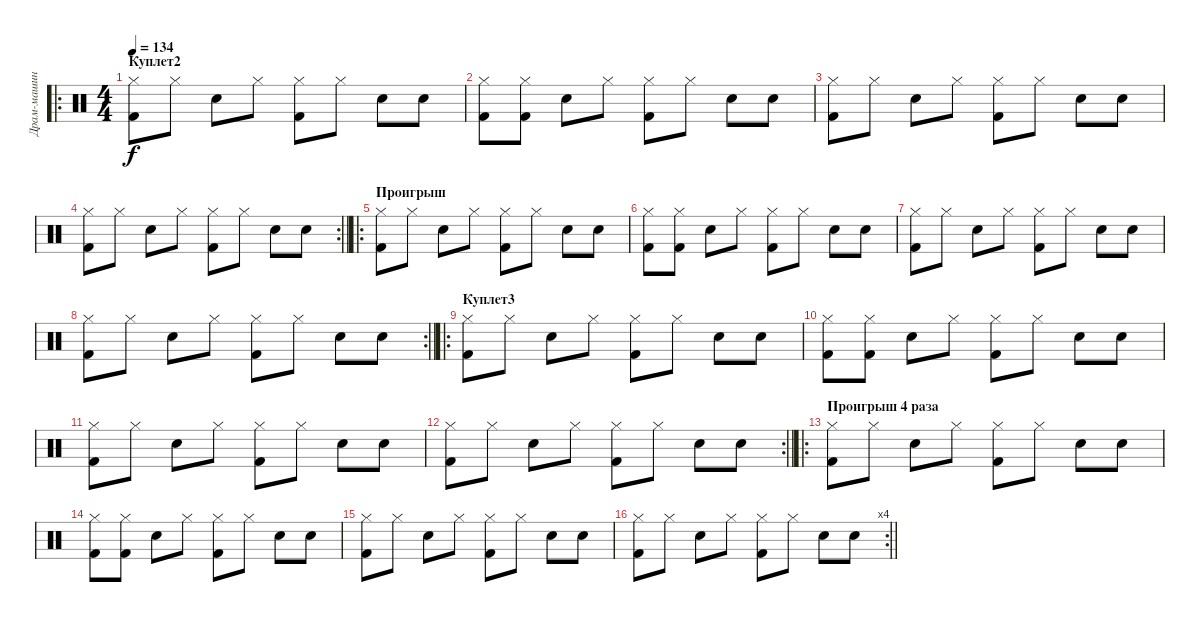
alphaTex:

\track ("Драм-машина))" "Драм-машин") {instrument percussion}
\staff {score}
\articulation defaults
\ro
\ts (4 4)
\section ("" "Куплет2")
\tempo 134
\clef neutral
\ks c
("Hi-Hat (closed)" "Kick (hit) 2").8{dy f} "Hi-Hat (closed)".8 "Electric Snare (hit)".8 "Hi-Hat (closed)".8 ("Hi-Hat (closed)" "Kick (hit) 2").8 "Hi-Hat (closed)".8 "Electric Snare (hit)".8 "Snare (hit) 2".8 |
("Hi-Hat (closed)" "Kick (hit) 2").8 ("Hi-Hat (closed)" "Kick (hit) 2").8 "Electric Snare (hit)".8 "Hi-Hat (closed)".8 ("Hi-Hat (closed)" "Kick (hit) 2").8 "Hi-Hat (closed)".8 "Electric Snare (hit)".8 "Snare (hit) 2".8 |
("Hi-Hat (closed)" "Kick (hit) 2").8 "Hi-Hat (closed)".8 "Electric Snare (hit)".8 "Hi-Hat (closed)".8 ("Hi-Hat (closed)" "Kick (hit) 2").8 "Hi-Hat (closed)".8 "Electric Snare (hit)".8 "Snare (hit) 2".8 |
\rc 2
\barLineRight lightlight
("Hi-Hat (closed)" "Kick (hit) 2").8 "Hi-Hat (closed)".8 "Electric Snare (hit)".8 "Hi-Hat (closed)".8 ("Hi-Hat (closed)" "Kick (hit) 2").8 "Hi-Hat (closed)".8 "Electric Snare (hit)".8 "Snare (hit) 2".8 |
\ro
\section ("" "Проигрыш")
("Hi-Hat (closed)" "Kick (hit) 2").8 "Hi-Hat (closed)".8 "Electric Snare (hit)".8 "Hi-Hat (closed)".8 ("Hi-Hat (closed)" "Kick (hit) 2").8 "Hi-Hat (closed)".8 "Electric Snare (hit)".8 "Snare (hit) 2".8 |
("Hi-Hat (closed)" "Kick (hit) 2").8 ("Hi-Hat (closed)" "Kick (hit) 2").8 "Electric Snare (hit)".8 "Hi-Hat (closed)".8 ("Hi-Hat (closed)" "Kick (hit) 2").8 "Hi-Hat (closed)".8 "Electric Snare (hit)".8 "Snare (hit) 2".8 |
("Hi-Hat (closed)" "Kick (hit) 2").8 "Hi-Hat (closed)".8 "Electric Snare (hit)".8 "Hi-Hat (closed)".8 ("Hi-Hat (closed)" "Kick (hit) 2").8 "Hi-Hat (closed)".8 "Electric Snare (hit)".8 "Snare (hit) 2".8 |
\rc 2
\barLineRight lightlight
("Hi-Hat (closed)" "Kick (hit) 2").8 "Hi-Hat (closed)".8 "Electric Snare (hit)".8 "Hi-Hat (closed)".8 ("Hi-Hat (closed)" "Kick (hit) 2").8 "Hi-Hat (closed)".8 "Electric Snare (hit)".8 "Snare (hit) 2".8 |
\ro
\section ("" "Куплет3")
("Hi-Hat (closed)" "Kick (hit) 2").8 "Hi-Hat (closed)".8 "Electric Snare (hit)".8 "Hi-Hat (closed)".8 ("Hi-Hat (closed)" "Kick (hit) 2").8 "Hi-Hat (closed)".8 "Electric Snare (hit)".8 "Snare (hit) 2".8 |
("Hi-Hat (closed)" "Kick (hit) 2").8 ("Hi-Hat (closed)" "Kick (hit) 2").8 "Electric Snare (hit)".8 "Hi-Hat (closed)".8 ("Hi-Hat (closed)" "Kick (hit) 2").8 "Hi-Hat (closed)".8 "Electric Snare (hit)".8 "Snare (hit) 2".8 |
("Hi-Hat (closed)" "Kick (hit) 2").8 "Hi-Hat (closed)".8 "Electric Snare (hit)".8 "Hi-Hat (closed)".8 ("Hi-Hat (closed)" "Kick (hit) 2").8 "Hi-Hat (closed)".8 "Electric Snare (hit)".8 "Snare (hit) 2".8 |
\rc 2
\barLineRight lightlight
("Hi-Hat (closed)" "Kick (hit) 2").8 "Hi-Hat (closed)".8 "Electric Snare (hit)".8 "Hi-Hat (closed)".8 ("Hi-Hat (closed)" "Kick (hit) 2").8 "Hi-Hat (closed)".8 "Electric Snare (hit)".8 "Snare (hit) 2".8 |
\ro
\section ("" "Проигрыш 4 раза")
("Hi-Hat (closed)" "Kick (hit) 2").8 "Hi-Hat (closed)".8 "Electric Snare (hit)".8 "Hi-Hat (closed)".8 ("Hi-Hat (closed)" "Kick (hit) 2").8 "Hi-Hat (closed)".8 "Electric Snare (hit)".8 "Snare (hit) 2".8 |
("Hi-Hat (closed)" "Kick (hit) 2").8 ("Hi-Hat (closed)" "Kick (hit) 2").8 "Electric Snare (hit)".8 "Hi-Hat (closed)".8 ("Hi-Hat (closed)" "Kick (hit) 2").8 "Hi-Hat (closed)".8 "Electric Snare (hit)".8 "Snare (hit) 2".8 |
("Hi-Hat (closed)" "Kick (hit) 2").8 "Hi-Hat (closed)".8 "Electric Snare (hit)".8 "Hi-Hat (closed)".8 ("Hi-Hat (closed)" "Kick (hit) 2").8 "Hi-Hat (closed)".8 "Electric Snare (hit)".8 "Snare (hit) 2".8 |
\rc 4
\barLineRight lightlight
("Hi-Hat (closed)" "Kick (hit) 2").8 "Hi-Hat (closed)".8 "Electric Snare (hit)".8 "Hi-Hat (closed)".8 ("Hi-Hat (closed)" "Kick (hit) 2").8 "Hi-Hat (closed)".8 "Electric Snare (hit)".8 "Snare (hit) 2".8
